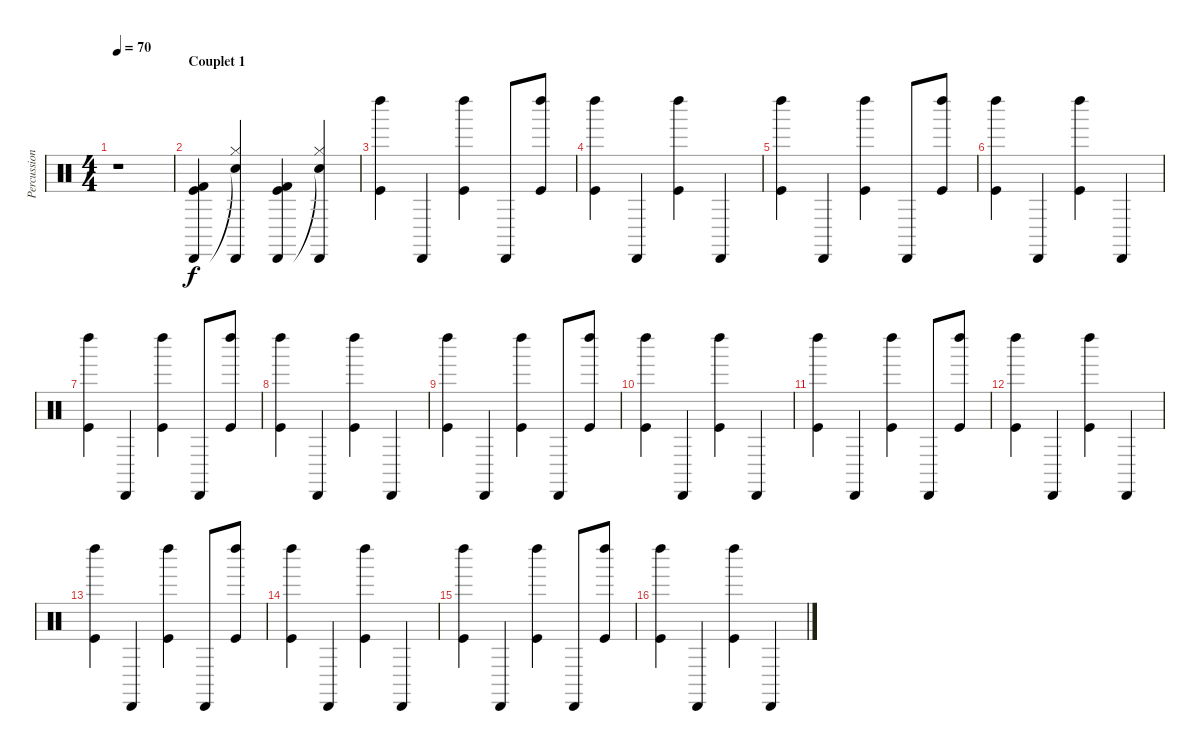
\track ("Percussions" "Percussion") {instrument percussion}
\staff {score}
\articulation defaults
\ts (4 4)
\tempo 70
\clef neutral
\ks c
r.1{dy f} |
\section ("" "Couplet 1")
("Kick (hit) 2" "Kick (hit)" "Cabasa (hit)").4 ("Cabasa (hit)" "Hi-Hat (closed)" "Snare (hit)"{t}).4 ("Kick (hit) 2" "Kick (hit)" "Cabasa (hit)").4 ("Cabasa (hit)" "Hi-Hat (closed)" "Snare (hit)"{t}).4 |
("Left Maraca (hit)" "Kick (hit)").4 "Cabasa (hit)".4 ("Left Maraca (hit)" "Kick (hit)").4 "Cabasa (hit)".8 ("Left Maraca (hit)" "Kick (hit)").8 |
("Left Maraca (hit)" "Kick (hit)").4 "Cabasa (hit)".4 ("Left Maraca (hit)" "Kick (hit)").4 "Cabasa (hit)".4 |
("Left Maraca (hit)" "Kick (hit)").4 "Cabasa (hit)".4 ("Left Maraca (hit)" "Kick (hit)").4 "Cabasa (hit)".8 ("Left Maraca (hit)" "Kick (hit)").8 |
("Left Maraca (hit)" "Kick (hit)").4 "Cabasa (hit)".4 ("Left Maraca (hit)" "Kick (hit)").4 "Cabasa (hit)".4 |
("Left Maraca (hit)" "Kick (hit)").4 "Cabasa (hit)".4 ("Left Maraca (hit)" "Kick (hit)").4 "Cabasa (hit)".8 ("Left Maraca (hit)" "Kick (hit)").8 |
("Left Maraca (hit)" "Kick (hit)").4 "Cabasa (hit)".4 ("Left Maraca (hit)" "Kick (hit)").4 "Cabasa (hit)".4 |
("Left Maraca (hit)" "Kick (hit)").4 "Cabasa (hit)".4 ("Left Maraca (hit)" "Kick (hit)").4 "Cabasa (hit)".8 ("Left Maraca (hit)" "Kick (hit)").8 |
("Left Maraca (hit)" "Kick (hit)").4 "Cabasa (hit)".4 ("Left Maraca (hit)" "Kick (hit)").4 "Cabasa (hit)".4 |
("Left Maraca (hit)" "Kick (hit)").4 "Cabasa (hit)".4 ("Left Maraca (hit)" "Kick (hit)").4 "Cabasa (hit)".8 ("Left Maraca (hit)" "Kick (hit)").8 |
("Left Maraca (hit)" "Kick (hit)").4 "Cabasa (hit)".4 ("Left Maraca (hit)" "Kick (hit)").4 "Cabasa (hit)".4 |
("Left Maraca (hit)" "Kick (hit)").4 "Cabasa (hit)".4 ("Left Maraca (hit)" "Kick (hit)").4 "Cabasa (hit)".8 ("Left Maraca (hit)" "Kick (hit)").8 |
("Left Maraca (hit)" "Kick (hit)").4 "Cabasa (hit)".4 ("Left Maraca (hit)" "Kick (hit)").4 "Cabasa (hit)".4 |
("Left Maraca (hit)" "Kick (hit)").4 "Cabasa (hit)".4 ("Left Maraca (hit)" "Kick (hit)").4 "Cabasa (hit)".8 ("Left Maraca (hit)" "Kick (hit)").8 |
("Left Maraca (hit)" "Kick (hit)").4 "Cabasa (hit)".4 ("Left Maraca (hit)" "Kick (hit)").4 "Cabasa (hit)".4
